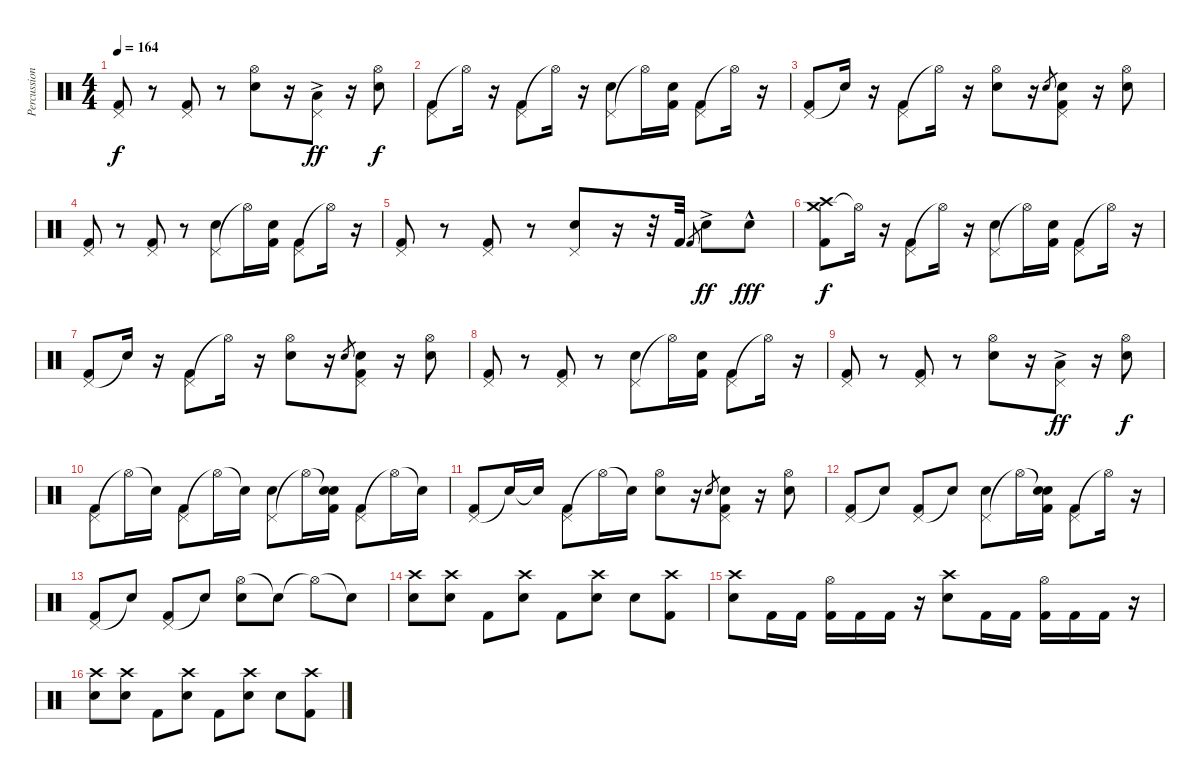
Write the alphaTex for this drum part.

\track ("Percussion" "Percussion") {instrument percussion bank 177}
\staff {score}
\articulation defaults
\ts (4 4)
\tempo 164
\clef neutral
\ks c
("Pedal Hi-Hat (hit)" "Kick (hit) 2").8{dy f} r.8 ("Pedal Hi-Hat (hit)" "Kick (hit) 2").8 r.8 ("Hi-Hat (open)" "Snare (hit) 2").8 r.16 ("Pedal Hi-Hat (hit)" "Low Floor Tom (hit)"{ac}).8{dy ff} r.16 ("Hi-Hat (open)" "Snare (hit) 2").8{dy f} |
("Pedal Hi-Hat (hit)" "Kick (hit) 2").8 "Hi-Hat (open)"{t}.16 r.16 ("Pedal Hi-Hat (hit)" "Kick (hit) 2").8 "Hi-Hat (open)"{t}.16 r.16 ("Pedal Hi-Hat (hit)" "Snare (hit) 2").8 "Hi-Hat (open)"{t}.16 ("Snare (hit) 2" "Kick (hit) 2").16 ("Pedal Hi-Hat (hit)" "Kick (hit) 2").8 "Hi-Hat (open)"{t}.16 r.16 |
("Pedal Hi-Hat (hit)" "Kick (hit) 2").8 "Snare (hit)"{t}.16 r.16 ("Pedal Hi-Hat (hit)" "Kick (hit) 2").8 "Hi-Hat (open)"{t}.16 r.16 ("Hi-Hat (open)" "Snare (hit) 2").8 r.16 "Snare (hit) 2".8{gr} ("Pedal Hi-Hat (hit)" "Snare (hit) 2" "Kick (hit) 2").8 r.16 ("Hi-Hat (open)" "Snare (hit) 2").8 |
("Pedal Hi-Hat (hit)" "Kick (hit) 2").8 r.8 ("Pedal Hi-Hat (hit)" "Kick (hit) 2").8 r.8 ("Pedal Hi-Hat (hit)" "Snare (hit) 2").8 "Hi-Hat (open)"{t}.16 ("Snare (hit) 2" "Kick (hit) 2").16 ("Pedal Hi-Hat (hit)" "Kick (hit) 2").8 "Hi-Hat (open)"{t}.16 r.16 |
("Pedal Hi-Hat (hit)" "Kick (hit) 2").8 r.8 ("Pedal Hi-Hat (hit)" "Kick (hit) 2").8 r.8 ("Pedal Hi-Hat (hit)" "Snare (hit) 2").8 r.16 r.32 "Kick (hit) 2".32 "Kick (hit) 2".8{gr} "Snare (hit) 2"{ac}.8{dy ff} "Snare (hit) 2"{hac}.8{dy fff} |
("Crash medium (hit)" "Crash high (hit)" "Kick (hit) 2").8{dy f} "Hi-Hat (open)"{t}.16 r.16 ("Pedal Hi-Hat (hit)" "Kick (hit) 2").8 "Hi-Hat (open)"{t}.16 r.16 ("Pedal Hi-Hat (hit)" "Snare (hit) 2").8 "Hi-Hat (open)"{t}.16 ("Snare (hit) 2" "Kick (hit) 2").16 ("Pedal Hi-Hat (hit)" "Kick (hit) 2").8 "Hi-Hat (open)"{t}.16 r.16 |
("Pedal Hi-Hat (hit)" "Kick (hit) 2").8 "Snare (hit)"{t}.16 r.16 ("Pedal Hi-Hat (hit)" "Kick (hit) 2").8 "Hi-Hat (open)"{t}.16 r.16 ("Hi-Hat (open)" "Snare (hit) 2").8 r.16 "Snare (hit) 2".8{gr} ("Pedal Hi-Hat (hit)" "Snare (hit) 2" "Kick (hit) 2").8 r.16 ("Hi-Hat (open)" "Snare (hit) 2").8 |
("Pedal Hi-Hat (hit)" "Kick (hit) 2").8 r.8 ("Pedal Hi-Hat (hit)" "Kick (hit) 2").8 r.8 ("Pedal Hi-Hat (hit)" "Snare (hit) 2").8 "Hi-Hat (open)"{t}.16 ("Snare (hit) 2" "Kick (hit) 2").16 ("Pedal Hi-Hat (hit)" "Kick (hit) 2").8 "Hi-Hat (open)"{t}.16 r.16 |
("Pedal Hi-Hat (hit)" "Kick (hit) 2").8 r.8 ("Pedal Hi-Hat (hit)" "Kick (hit) 2").8 r.8 ("Hi-Hat (open)" "Snare (hit) 2").8 r.16 ("Pedal Hi-Hat (hit)" "Low Floor Tom (hit)"{ac}).8{dy ff} r.16 ("Hi-Hat (open)" "Snare (hit) 2").8{dy f} |
("Pedal Hi-Hat (hit)" "Kick (hit) 2").8 "Hi-Hat (open)"{t}.16 "Snare (hit)"{t}.16 ("Pedal Hi-Hat (hit)" "Kick (hit) 2").8 "Hi-Hat (open)"{t}.16 "Snare (hit)"{t}.16 ("Pedal Hi-Hat (hit)" "Snare (hit) 2").8 "Hi-Hat (open)"{t}.16 ("Snare (hit)"{t} "Snare (hit) 2" "Kick (hit) 2").16 ("Pedal Hi-Hat (hit)" "Kick (hit) 2").8 "Hi-Hat (open)"{t}.16 "Snare (hit)"{t}.16 |
("Pedal Hi-Hat (hit)" "Kick (hit) 2").8 "Snare (hit)"{t}.16 "Snare (hit)"{t}.16 ("Pedal Hi-Hat (hit)" "Kick (hit) 2").8 "Hi-Hat (open)"{t}.16 "Snare (hit)"{t}.16 ("Hi-Hat (open)" "Snare (hit) 2").8 r.16 "Snare (hit) 2".8{gr} ("Pedal Hi-Hat (hit)" "Snare (hit) 2" "Kick (hit) 2").8 r.16 ("Hi-Hat (open)" "Snare (hit) 2").8 |
("Pedal Hi-Hat (hit)" "Kick (hit) 2").8 "Snare (hit)"{t}.8 ("Pedal Hi-Hat (hit)" "Kick (hit) 2").8 "Snare (hit)"{t}.8 ("Pedal Hi-Hat (hit)" "Snare (hit) 2").8 "Hi-Hat (open)"{t}.16 ("Snare (hit)"{t} "Snare (hit) 2" "Kick (hit) 2").16 ("Pedal Hi-Hat (hit)" "Kick (hit) 2").8 "Hi-Hat (open)"{t}.16 r.16 |
("Pedal Hi-Hat (hit)" "Kick (hit) 2").8 "Snare (hit)"{t}.8 ("Pedal Hi-Hat (hit)" "Kick (hit) 2").8 "Snare (hit)"{t}.8 ("Hi-Hat (open)" "Snare (hit) 2").8 "Snare (hit)"{t}.8 "Hi-Hat (open)"{t}.8 "Snare (hit)"{t}.8 |
("Crash high (hit)" "Snare (hit) 2").8 ("Crash high (hit)" "Snare (hit) 2").8 "Kick (hit) 2".8 ("Crash high (hit)" "Snare (hit) 2").8 "Kick (hit) 2".8 ("Crash high (hit)" "Snare (hit) 2").8 "Snare (hit) 2".8 ("Crash high (hit)" "Kick (hit) 2").8 |
("Crash high (hit)" "Snare (hit) 2").8 "Kick (hit) 2".16 "Kick (hit) 2".16 ("Hi-Hat (open)" "Kick (hit) 2").16 "Kick (hit) 2".16 "Kick (hit) 2".16 r.16 ("Crash high (hit)" "Snare (hit) 2").8 "Kick (hit) 2".16 "Kick (hit) 2".16 ("Hi-Hat (open)" "Kick (hit) 2").16 "Kick (hit) 2".16 "Kick (hit) 2".16 r.16 |
("Crash high (hit)" "Snare (hit) 2").8 ("Crash high (hit)" "Snare (hit) 2").8 "Kick (hit) 2".8 ("Crash high (hit)" "Snare (hit) 2").8 "Kick (hit) 2".8 ("Crash high (hit)" "Snare (hit) 2").8 "Snare (hit) 2".8 ("Crash high (hit)" "Kick (hit) 2").8
